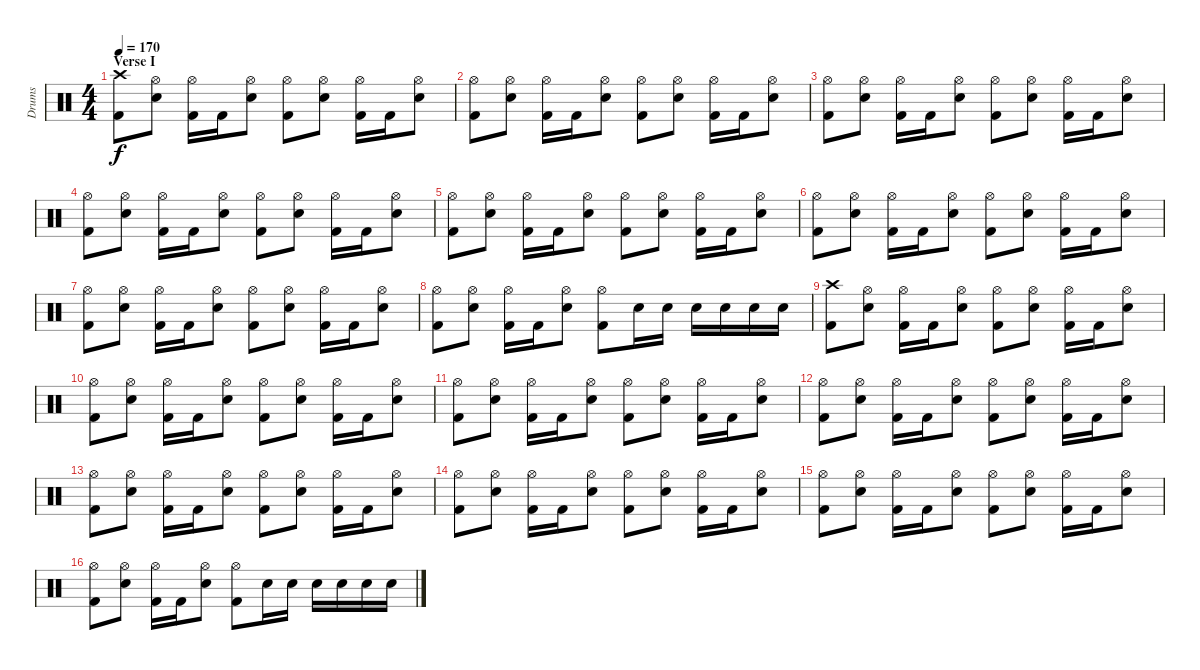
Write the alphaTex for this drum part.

\track ("Drums" "Drums") {instrument percussion}
\staff {score}
\articulation defaults
\ts (4 4)
\section ("" "Verse I")
\tempo 170
\clef neutral
\ks c
("Crash high (hit)" "Kick (hit) 2").8{dy f} ("Hi-Hat (open)" "Electric Snare (hit)").8 ("Hi-Hat (open)" "Kick (hit) 2").16 "Kick (hit) 2".16 ("Hi-Hat (open)" "Electric Snare (hit)").8 ("Hi-Hat (open)" "Kick (hit) 2").8 ("Hi-Hat (open)" "Electric Snare (hit)").8 ("Hi-Hat (open)" "Kick (hit) 2").16 "Kick (hit) 2".16 ("Hi-Hat (open)" "Electric Snare (hit)").8 |
("Hi-Hat (open)" "Kick (hit) 2").8 ("Hi-Hat (open)" "Electric Snare (hit)").8 ("Hi-Hat (open)" "Kick (hit) 2").16 "Kick (hit) 2".16 ("Hi-Hat (open)" "Electric Snare (hit)").8 ("Hi-Hat (open)" "Kick (hit) 2").8 ("Hi-Hat (open)" "Electric Snare (hit)").8 ("Hi-Hat (open)" "Kick (hit) 2").16 "Kick (hit) 2".16 ("Hi-Hat (open)" "Electric Snare (hit)").8 |
("Hi-Hat (open)" "Kick (hit) 2").8 ("Hi-Hat (open)" "Electric Snare (hit)").8 ("Hi-Hat (open)" "Kick (hit) 2").16 "Kick (hit) 2".16 ("Hi-Hat (open)" "Electric Snare (hit)").8 ("Hi-Hat (open)" "Kick (hit) 2").8 ("Hi-Hat (open)" "Electric Snare (hit)").8 ("Hi-Hat (open)" "Kick (hit) 2").16 "Kick (hit) 2".16 ("Hi-Hat (open)" "Electric Snare (hit)").8 |
("Hi-Hat (open)" "Kick (hit) 2").8 ("Hi-Hat (open)" "Electric Snare (hit)").8 ("Hi-Hat (open)" "Kick (hit) 2").16 "Kick (hit) 2".16 ("Hi-Hat (open)" "Electric Snare (hit)").8 ("Hi-Hat (open)" "Kick (hit) 2").8 ("Hi-Hat (open)" "Electric Snare (hit)").8 ("Hi-Hat (open)" "Kick (hit) 2").16 "Kick (hit) 2".16 ("Hi-Hat (open)" "Electric Snare (hit)").8 |
("Hi-Hat (open)" "Kick (hit) 2").8 ("Hi-Hat (open)" "Electric Snare (hit)").8 ("Hi-Hat (open)" "Kick (hit) 2").16 "Kick (hit) 2".16 ("Hi-Hat (open)" "Electric Snare (hit)").8 ("Hi-Hat (open)" "Kick (hit) 2").8 ("Hi-Hat (open)" "Electric Snare (hit)").8 ("Hi-Hat (open)" "Kick (hit) 2").16 "Kick (hit) 2".16 ("Hi-Hat (open)" "Electric Snare (hit)").8 |
("Hi-Hat (open)" "Kick (hit) 2").8 ("Hi-Hat (open)" "Electric Snare (hit)").8 ("Hi-Hat (open)" "Kick (hit) 2").16 "Kick (hit) 2".16 ("Hi-Hat (open)" "Electric Snare (hit)").8 ("Hi-Hat (open)" "Kick (hit) 2").8 ("Hi-Hat (open)" "Electric Snare (hit)").8 ("Hi-Hat (open)" "Kick (hit) 2").16 "Kick (hit) 2".16 ("Hi-Hat (open)" "Electric Snare (hit)").8 |
("Hi-Hat (open)" "Kick (hit) 2").8 ("Hi-Hat (open)" "Electric Snare (hit)").8 ("Hi-Hat (open)" "Kick (hit) 2").16 "Kick (hit) 2".16 ("Hi-Hat (open)" "Electric Snare (hit)").8 ("Hi-Hat (open)" "Kick (hit) 2").8 ("Hi-Hat (open)" "Electric Snare (hit)").8 ("Hi-Hat (open)" "Kick (hit) 2").16 "Kick (hit) 2".16 ("Hi-Hat (open)" "Electric Snare (hit)").8 |
("Hi-Hat (open)" "Kick (hit) 2").8 ("Hi-Hat (open)" "Electric Snare (hit)").8 ("Hi-Hat (open)" "Kick (hit) 2").16 "Kick (hit) 2".16 ("Hi-Hat (open)" "Electric Snare (hit)").8 ("Hi-Hat (open)" "Kick (hit) 2").8 "Electric Snare (hit)".16 "Electric Snare (hit)".16 "Electric Snare (hit)".16 "Electric Snare (hit)".16 "Electric Snare (hit)".16 "Electric Snare (hit)".16 |
("Crash high (hit)" "Kick (hit) 2").8 ("Hi-Hat (open)" "Electric Snare (hit)").8 ("Hi-Hat (open)" "Kick (hit) 2").16 "Kick (hit) 2".16 ("Hi-Hat (open)" "Electric Snare (hit)").8 ("Hi-Hat (open)" "Kick (hit) 2").8 ("Hi-Hat (open)" "Electric Snare (hit)").8 ("Hi-Hat (open)" "Kick (hit) 2").16 "Kick (hit) 2".16 ("Hi-Hat (open)" "Electric Snare (hit)").8 |
("Hi-Hat (open)" "Kick (hit) 2").8 ("Hi-Hat (open)" "Electric Snare (hit)").8 ("Hi-Hat (open)" "Kick (hit) 2").16 "Kick (hit) 2".16 ("Hi-Hat (open)" "Electric Snare (hit)").8 ("Hi-Hat (open)" "Kick (hit) 2").8 ("Hi-Hat (open)" "Electric Snare (hit)").8 ("Hi-Hat (open)" "Kick (hit) 2").16 "Kick (hit) 2".16 ("Hi-Hat (open)" "Electric Snare (hit)").8 |
("Hi-Hat (open)" "Kick (hit) 2").8 ("Hi-Hat (open)" "Electric Snare (hit)").8 ("Hi-Hat (open)" "Kick (hit) 2").16 "Kick (hit) 2".16 ("Hi-Hat (open)" "Electric Snare (hit)").8 ("Hi-Hat (open)" "Kick (hit) 2").8 ("Hi-Hat (open)" "Electric Snare (hit)").8 ("Hi-Hat (open)" "Kick (hit) 2").16 "Kick (hit) 2".16 ("Hi-Hat (open)" "Electric Snare (hit)").8 |
("Hi-Hat (open)" "Kick (hit) 2").8 ("Hi-Hat (open)" "Electric Snare (hit)").8 ("Hi-Hat (open)" "Kick (hit) 2").16 "Kick (hit) 2".16 ("Hi-Hat (open)" "Electric Snare (hit)").8 ("Hi-Hat (open)" "Kick (hit) 2").8 ("Hi-Hat (open)" "Electric Snare (hit)").8 ("Hi-Hat (open)" "Kick (hit) 2").16 "Kick (hit) 2".16 ("Hi-Hat (open)" "Electric Snare (hit)").8 |
("Hi-Hat (open)" "Kick (hit) 2").8 ("Hi-Hat (open)" "Electric Snare (hit)").8 ("Hi-Hat (open)" "Kick (hit) 2").16 "Kick (hit) 2".16 ("Hi-Hat (open)" "Electric Snare (hit)").8 ("Hi-Hat (open)" "Kick (hit) 2").8 ("Hi-Hat (open)" "Electric Snare (hit)").8 ("Hi-Hat (open)" "Kick (hit) 2").16 "Kick (hit) 2".16 ("Hi-Hat (open)" "Electric Snare (hit)").8 |
("Hi-Hat (open)" "Kick (hit) 2").8 ("Hi-Hat (open)" "Electric Snare (hit)").8 ("Hi-Hat (open)" "Kick (hit) 2").16 "Kick (hit) 2".16 ("Hi-Hat (open)" "Electric Snare (hit)").8 ("Hi-Hat (open)" "Kick (hit) 2").8 ("Hi-Hat (open)" "Electric Snare (hit)").8 ("Hi-Hat (open)" "Kick (hit) 2").16 "Kick (hit) 2".16 ("Hi-Hat (open)" "Electric Snare (hit)").8 |
("Hi-Hat (open)" "Kick (hit) 2").8 ("Hi-Hat (open)" "Electric Snare (hit)").8 ("Hi-Hat (open)" "Kick (hit) 2").16 "Kick (hit) 2".16 ("Hi-Hat (open)" "Electric Snare (hit)").8 ("Hi-Hat (open)" "Kick (hit) 2").8 ("Hi-Hat (open)" "Electric Snare (hit)").8 ("Hi-Hat (open)" "Kick (hit) 2").16 "Kick (hit) 2".16 ("Hi-Hat (open)" "Electric Snare (hit)").8 |
("Hi-Hat (open)" "Kick (hit) 2").8 ("Hi-Hat (open)" "Electric Snare (hit)").8 ("Hi-Hat (open)" "Kick (hit) 2").16 "Kick (hit) 2".16 ("Hi-Hat (open)" "Electric Snare (hit)").8 ("Hi-Hat (open)" "Kick (hit) 2").8 "Electric Snare (hit)".16 "Electric Snare (hit)".16 "Electric Snare (hit)".16 "Electric Snare (hit)".16 "Electric Snare (hit)".16 "Electric Snare (hit)".16
